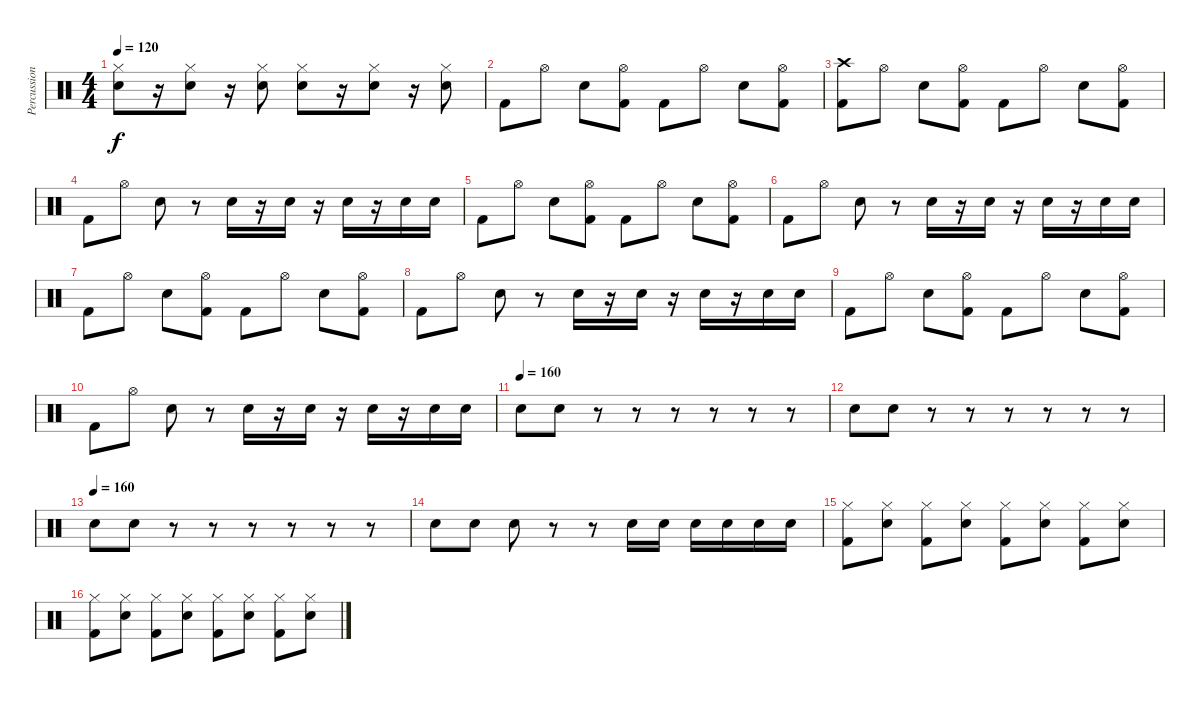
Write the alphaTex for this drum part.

\track ("Percussions" "Percussion") {instrument percussion}
\staff {score}
\articulation defaults
\ts (4 4)
\tempo 120
\clef neutral
\ks c
("Hi-Hat (closed)" "Electric Snare (hit)").8{dy f} r.16 ("Hi-Hat (closed)" "Electric Snare (hit)").8 r.16 ("Hi-Hat (closed)" "Electric Snare (hit)").8 ("Hi-Hat (closed)" "Electric Snare (hit)").8 r.16 ("Hi-Hat (closed)" "Electric Snare (hit)").8 r.16 ("Hi-Hat (closed)" "Electric Snare (hit)").8 |
"Kick (hit) 2".8 "Hi-Hat (open)".8 "Electric Snare (hit)".8 ("Kick (hit) 2" "Hi-Hat (open)").8 "Kick (hit) 2".8 "Hi-Hat (open)".8 "Electric Snare (hit)".8 ("Hi-Hat (open)" "Kick (hit) 2").8 |
("Crash high (hit)" "Kick (hit) 2").8 "Hi-Hat (open)".8 "Electric Snare (hit)".8 ("Kick (hit) 2" "Hi-Hat (open)").8 "Kick (hit) 2".8 "Hi-Hat (open)".8 "Electric Snare (hit)".8 ("Hi-Hat (open)" "Kick (hit) 2").8 |
"Kick (hit) 2".8 "Hi-Hat (open)".8 "Electric Snare (hit)".8 r.8 "Electric Snare (hit)".16 r.16 "Electric Snare (hit)".16 r.16 "Electric Snare (hit)".16 r.16 "Electric Snare (hit)".16 "Electric Snare (hit)".16 |
"Kick (hit) 2".8 "Hi-Hat (open)".8 "Electric Snare (hit)".8 ("Kick (hit) 2" "Hi-Hat (open)").8 "Kick (hit) 2".8 "Hi-Hat (open)".8 "Electric Snare (hit)".8 ("Hi-Hat (open)" "Kick (hit) 2").8 |
"Kick (hit) 2".8 "Hi-Hat (open)".8 "Electric Snare (hit)".8 r.8 "Electric Snare (hit)".16 r.16 "Electric Snare (hit)".16 r.16 "Electric Snare (hit)".16 r.16 "Electric Snare (hit)".16 "Electric Snare (hit)".16 |
"Kick (hit) 2".8 "Hi-Hat (open)".8 "Electric Snare (hit)".8 ("Kick (hit) 2" "Hi-Hat (open)").8 "Kick (hit) 2".8 "Hi-Hat (open)".8 "Electric Snare (hit)".8 ("Hi-Hat (open)" "Kick (hit) 2").8 |
"Kick (hit) 2".8 "Hi-Hat (open)".8 "Electric Snare (hit)".8 r.8 "Electric Snare (hit)".16 r.16 "Electric Snare (hit)".16 r.16 "Electric Snare (hit)".16 r.16 "Electric Snare (hit)".16 "Electric Snare (hit)".16 |
"Kick (hit) 2".8 "Hi-Hat (open)".8 "Electric Snare (hit)".8 ("Kick (hit) 2" "Hi-Hat (open)").8 "Kick (hit) 2".8 "Hi-Hat (open)".8 "Electric Snare (hit)".8 ("Hi-Hat (open)" "Kick (hit) 2").8 |
"Kick (hit) 2".8 "Hi-Hat (open)".8 "Electric Snare (hit)".8 r.8 "Electric Snare (hit)".16 r.16 "Electric Snare (hit)".16 r.16 "Electric Snare (hit)".16 r.16 "Electric Snare (hit)".16 "Electric Snare (hit)".16 |
\tempo (160)
"Electric Snare (hit)".8 "Electric Snare (hit)".8 r.8 r.8 r.8 r.8 r.8 r.8 |
"Electric Snare (hit)".8 "Electric Snare (hit)".8 r.8 r.8 r.8 r.8 r.8 r.8 |
\tempo (160)
"Electric Snare (hit)".8 "Electric Snare (hit)".8 r.8 r.8 r.8 r.8 r.8 r.8 |
"Electric Snare (hit)".8 "Electric Snare (hit)".8 "Electric Snare (hit)".8 r.8 r.8 "Electric Snare (hit)".16 "Electric Snare (hit)".16 "Electric Snare (hit)".16 "Electric Snare (hit)".16 "Electric Snare (hit)".16 "Electric Snare (hit)".16 |
("Hi-Hat (closed)" "Kick (hit) 2").8 ("Hi-Hat (closed)" "Electric Snare (hit)").8 ("Hi-Hat (closed)" "Kick (hit) 2").8 ("Hi-Hat (closed)" "Electric Snare (hit)").8 ("Hi-Hat (closed)" "Kick (hit) 2").8 ("Hi-Hat (closed)" "Electric Snare (hit)").8 ("Hi-Hat (closed)" "Kick (hit) 2").8 ("Hi-Hat (closed)" "Electric Snare (hit)").8 |
("Hi-Hat (closed)" "Kick (hit) 2").8 ("Hi-Hat (closed)" "Electric Snare (hit)").8 ("Hi-Hat (closed)" "Kick (hit) 2").8 ("Hi-Hat (closed)" "Electric Snare (hit)").8 ("Hi-Hat (closed)" "Kick (hit) 2").8 ("Hi-Hat (closed)" "Electric Snare (hit)").8 ("Hi-Hat (closed)" "Kick (hit) 2").8 ("Hi-Hat (closed)" "Electric Snare (hit)").8
